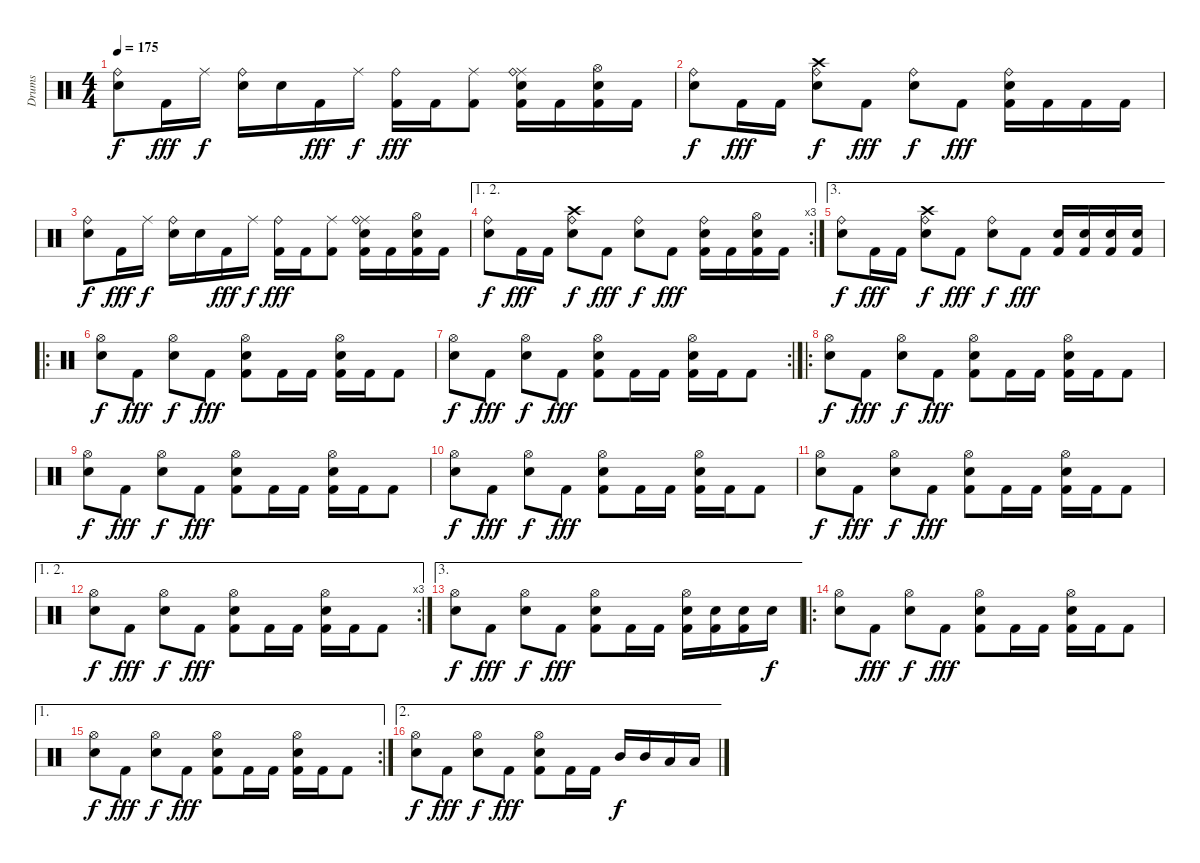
\track ("Drums" "Drums") {instrument percussion}
\staff {score}
\articulation defaults
\ts (4 4)
\tempo 175
\clef neutral
\ks c
("Ride (bell)" "Electric Snare (hit)").8{dy f} "Kick (hit) 2".16{dy fff} "Ride (middle)".16{dy f} ("Ride (bell)" "Electric Snare (hit)").16 "Electric Snare (hit)".16 "Kick (hit) 2".16{dy fff} "Ride (middle)".16{dy f} ("Ride (bell)" "Kick (hit) 2").16{dy fff} "Kick (hit) 2".16 ("Ride (middle)" "Kick (hit) 2").8 ("Ride (middle)" "Ride (bell)" "Electric Snare (hit)" "Kick (hit) 2").16 "Kick (hit) 2".16 ("Hi-Hat (open)" "Electric Snare (hit)" "Kick (hit) 2").16 "Kick (hit) 2".16 |
("Ride (bell)" "Electric Snare (hit)").8{dy f} "Kick (hit) 2".16{dy fff} "Kick (hit) 2".16 ("Crash high (hit)" "Ride (bell)" "Electric Snare (hit)").8{dy f} "Kick (hit) 2".8{dy fff} ("Ride (bell)" "Electric Snare (hit)").8{dy f} "Kick (hit) 2".8{dy fff} ("Ride (bell)" "Electric Snare (hit)" "Kick (hit) 2").16 "Kick (hit) 2".16 "Kick (hit) 2".16 "Kick (hit) 2".16 |
("Ride (bell)" "Electric Snare (hit)").8{dy f} "Kick (hit) 2".16{dy fff} "Ride (middle)".16{dy f} ("Ride (bell)" "Electric Snare (hit)").16 "Electric Snare (hit)".16 "Kick (hit) 2".16{dy fff} "Ride (middle)".16{dy f} ("Ride (bell)" "Kick (hit) 2").16{dy fff} "Kick (hit) 2".16 ("Ride (middle)" "Kick (hit) 2").8 ("Ride (middle)" "Ride (bell)" "Electric Snare (hit)" "Kick (hit) 2").16 "Kick (hit) 2".16 ("Hi-Hat (open)" "Electric Snare (hit)" "Kick (hit) 2").16 "Kick (hit) 2".16 |
\ae (1 2)
\rc 3
("Ride (bell)" "Electric Snare (hit)").8{dy f} "Kick (hit) 2".16{dy fff} "Kick (hit) 2".16 ("Crash high (hit)" "Ride (bell)" "Electric Snare (hit)").8{dy f} "Kick (hit) 2".8{dy fff} ("Ride (bell)" "Electric Snare (hit)").8{dy f} "Kick (hit) 2".8{dy fff} ("Ride (bell)" "Electric Snare (hit)" "Kick (hit) 2").16 "Kick (hit) 2".16 ("Hi-Hat (open)" "Electric Snare (hit)" "Kick (hit) 2").16 "Kick (hit) 2".16 |
\ae 3
("Ride (bell)" "Electric Snare (hit)").8{dy f} "Kick (hit) 2".16{dy fff} "Kick (hit) 2".16 ("Crash high (hit)" "Ride (bell)" "Electric Snare (hit)").8{dy f} "Kick (hit) 2".8{dy fff} ("Ride (bell)" "Electric Snare (hit)").8{dy f} "Kick (hit) 2".8{dy fff} ("Electric Snare (hit)" "Kick (hit) 2").16 ("Electric Snare (hit)" "Kick (hit) 2").16 ("Electric Snare (hit)" "Kick (hit) 2").16 ("Electric Snare (hit)" "Kick (hit) 2").16 |
\ro
("Hi-Hat (open)" "Electric Snare (hit)").8{dy f} "Kick (hit) 2".8{dy fff} ("Hi-Hat (open)" "Electric Snare (hit)").8{dy f} "Kick (hit) 2".8{dy fff} ("Hi-Hat (open)" "Electric Snare (hit)" "Kick (hit) 2").8 "Kick (hit) 2".16 "Kick (hit) 2".16 ("Hi-Hat (open)" "Electric Snare (hit)" "Kick (hit) 2").16 "Kick (hit) 2".16 "Kick (hit) 2".8 |
\rc 2
("Hi-Hat (open)" "Electric Snare (hit)").8{dy f} "Kick (hit) 2".8{dy fff} ("Hi-Hat (open)" "Electric Snare (hit)").8{dy f} "Kick (hit) 2".8{dy fff} ("Hi-Hat (open)" "Electric Snare (hit)" "Kick (hit) 2").8 "Kick (hit) 2".16 "Kick (hit) 2".16 ("Hi-Hat (open)" "Electric Snare (hit)" "Kick (hit) 2").16 "Kick (hit) 2".16 "Kick (hit) 2".8 |
\ro
("Hi-Hat (open)" "Electric Snare (hit)").8{dy f} "Kick (hit) 2".8{dy fff} ("Hi-Hat (open)" "Electric Snare (hit)").8{dy f} "Kick (hit) 2".8{dy fff} ("Hi-Hat (open)" "Electric Snare (hit)" "Kick (hit) 2").8 "Kick (hit) 2".16 "Kick (hit) 2".16 ("Hi-Hat (open)" "Electric Snare (hit)" "Kick (hit) 2").16 "Kick (hit) 2".16 "Kick (hit) 2".8 |
("Hi-Hat (open)" "Electric Snare (hit)").8{dy f} "Kick (hit) 2".8{dy fff} ("Hi-Hat (open)" "Electric Snare (hit)").8{dy f} "Kick (hit) 2".8{dy fff} ("Hi-Hat (open)" "Electric Snare (hit)" "Kick (hit) 2").8 "Kick (hit) 2".16 "Kick (hit) 2".16 ("Hi-Hat (open)" "Electric Snare (hit)" "Kick (hit) 2").16 "Kick (hit) 2".16 "Kick (hit) 2".8 |
("Hi-Hat (open)" "Electric Snare (hit)").8{dy f} "Kick (hit) 2".8{dy fff} ("Hi-Hat (open)" "Electric Snare (hit)").8{dy f} "Kick (hit) 2".8{dy fff} ("Hi-Hat (open)" "Electric Snare (hit)" "Kick (hit) 2").8 "Kick (hit) 2".16 "Kick (hit) 2".16 ("Hi-Hat (open)" "Electric Snare (hit)" "Kick (hit) 2").16 "Kick (hit) 2".16 "Kick (hit) 2".8 |
("Hi-Hat (open)" "Electric Snare (hit)").8{dy f} "Kick (hit) 2".8{dy fff} ("Hi-Hat (open)" "Electric Snare (hit)").8{dy f} "Kick (hit) 2".8{dy fff} ("Hi-Hat (open)" "Electric Snare (hit)" "Kick (hit) 2").8 "Kick (hit) 2".16 "Kick (hit) 2".16 ("Hi-Hat (open)" "Electric Snare (hit)" "Kick (hit) 2").16 "Kick (hit) 2".16 "Kick (hit) 2".8 |
\ae (1 2)
\rc 3
("Hi-Hat (open)" "Electric Snare (hit)").8{dy f} "Kick (hit) 2".8{dy fff} ("Hi-Hat (open)" "Electric Snare (hit)").8{dy f} "Kick (hit) 2".8{dy fff} ("Hi-Hat (open)" "Electric Snare (hit)" "Kick (hit) 2").8 "Kick (hit) 2".16 "Kick (hit) 2".16 ("Hi-Hat (open)" "Electric Snare (hit)" "Kick (hit) 2").16 "Kick (hit) 2".16 "Kick (hit) 2".8 |
\ae 3
("Hi-Hat (open)" "Electric Snare (hit)").8{dy f} "Kick (hit) 2".8{dy fff} ("Hi-Hat (open)" "Electric Snare (hit)").8{dy f} "Kick (hit) 2".8{dy fff} ("Hi-Hat (open)" "Electric Snare (hit)" "Kick (hit) 2").8 "Kick (hit) 2".16 "Kick (hit) 2".16 ("Hi-Hat (open)" "Electric Snare (hit)" "Kick (hit) 2").16 ("Electric Snare (hit)" "Kick (hit) 2").16 ("Electric Snare (hit)" "Kick (hit) 2").16 "Electric Snare (hit)".16{dy f} |
\ro
("Hi-Hat (open)" "Electric Snare (hit)").8 "Kick (hit) 2".8{dy fff} ("Hi-Hat (open)" "Electric Snare (hit)").8{dy f} "Kick (hit) 2".8{dy fff} ("Hi-Hat (open)" "Electric Snare (hit)" "Kick (hit) 2").8 "Kick (hit) 2".16 "Kick (hit) 2".16 ("Hi-Hat (open)" "Electric Snare (hit)" "Kick (hit) 2").16 "Kick (hit) 2".16 "Kick (hit) 2".8 |
\ae 1
\rc 2
("Hi-Hat (open)" "Electric Snare (hit)").8{dy f} "Kick (hit) 2".8{dy fff} ("Hi-Hat (open)" "Electric Snare (hit)").8{dy f} "Kick (hit) 2".8{dy fff} ("Hi-Hat (open)" "Electric Snare (hit)" "Kick (hit) 2").8 "Kick (hit) 2".16 "Kick (hit) 2".16 ("Hi-Hat (open)" "Electric Snare (hit)" "Kick (hit) 2").16 "Kick (hit) 2".16 "Kick (hit) 2".8 |
\ae 2
("Hi-Hat (open)" "Electric Snare (hit)").8{dy f} "Kick (hit) 2".8{dy fff} ("Hi-Hat (open)" "Electric Snare (hit)").8{dy f} "Kick (hit) 2".8{dy fff} ("Hi-Hat (open)" "Electric Snare (hit)" "Kick (hit) 2").8 "Kick (hit) 2".16 "Kick (hit) 2".16 "Mid Tom (hit)".16{dy f} "Mid Tom (hit)".16 "Low Tom (hit)".16 "Low Tom (hit)".16
